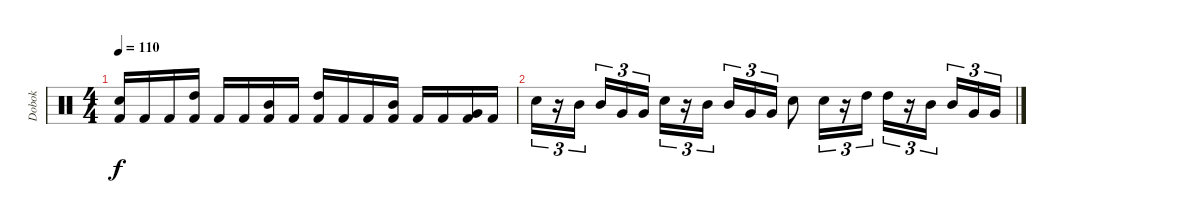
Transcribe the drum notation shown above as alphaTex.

\track ("Dobok" "Dobok") {instrument percussion}
\staff {score}
\articulation defaults
\ts (4 4)
\tempo 110
\clef neutral
\ks c
("Snare (hit) 2" "Kick (hit) 2").16{dy f} "Kick (hit) 2".16 "Kick (hit) 2".16 ("High Tom (hit)" "Kick (hit) 2").16 "Kick (hit) 2".16 "Kick (hit) 2".16 ("Mid Tom (hit)" "Kick (hit) 2").16 "Kick (hit) 2".16 ("High Tom (hit)" "Kick (hit) 2").16 "Kick (hit) 2".16 "Kick (hit) 2".16 ("Mid Tom (hit)" "Kick (hit) 2").16 "Kick (hit) 2".16 "Kick (hit) 2".16 ("Very Low Tom (hit)" "Kick (hit) 2").16 "Kick (hit) 2".16 |
"Snare (hit) 2".16{tu (3 2)} r.16{tu (3 2)} "Mid Tom (hit)".16{tu (3 2)} "Mid Tom (hit)".16{tu (3 2)} "Very Low Tom (hit)".16{tu (3 2)} "Very Low Tom (hit)".16{tu (3 2)} "Snare (hit) 2".16{tu (3 2)} r.16{tu (3 2)} "Mid Tom (hit)".16{tu (3 2)} "Mid Tom (hit)".16{tu (3 2)} "Very Low Tom (hit)".16{tu (3 2)} "Very Low Tom (hit)".16{tu (3 2)} "Snare (hit) 2".8 "Snare (hit) 2".16{tu (3 2)} r.16{tu (3 2)} "High Tom (hit)".16{tu (3 2)} "High Tom (hit)".16{tu (3 2)} r.16{tu (3 2)} "Mid Tom (hit)".16{tu (3 2)} "Mid Tom (hit)".16{tu (3 2)} "Very Low Tom (hit)".16{tu (3 2)} "Very Low Tom (hit)".16{tu (3 2)}
